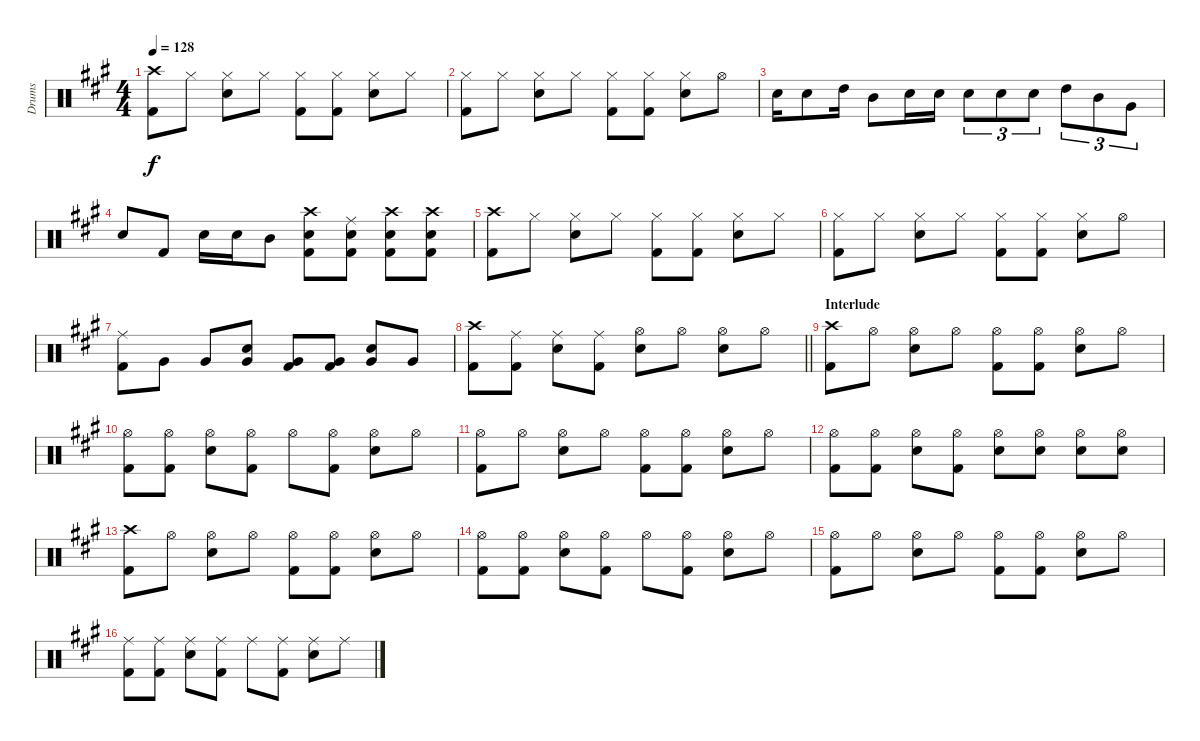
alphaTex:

\track ("Drums" "Drums") {instrument percussion}
\staff {score}
\articulation defaults
\ts (4 4)
\tempo 128
\clef neutral
\ks a
("Crash high (hit)" "Kick (hit) 2").8{dy f} "Hi-Hat (closed)".8 ("Hi-Hat (closed)" "Snare (hit) 2").8 "Hi-Hat (closed)".8 ("Hi-Hat (closed)" "Kick (hit) 2").8 ("Hi-Hat (closed)" "Kick (hit) 2").8 ("Hi-Hat (closed)" "Snare (hit) 2").8 "Hi-Hat (closed)".8 |
("Hi-Hat (closed)" "Kick (hit) 2").8 "Hi-Hat (closed)".8 ("Hi-Hat (closed)" "Snare (hit) 2").8 "Hi-Hat (closed)".8 ("Hi-Hat (closed)" "Kick (hit) 2").8 ("Hi-Hat (closed)" "Kick (hit) 2").8 ("Hi-Hat (closed)" "Snare (hit) 2").8 "Hi-Hat (open)".8 |
"Snare (hit) 2".16 "Snare (hit) 2".8 "High Tom (hit)".16 "Mid Tom (hit)".8 "Snare (hit) 2".16 "Snare (hit) 2".16 "Snare (hit) 2".8{tu (3 2)} "Snare (hit) 2".8{tu (3 2)} "Snare (hit) 2".8{tu (3 2)} "High Tom (hit)".8{tu (3 2)} "Mid Tom (hit)".8{tu (3 2)} "Very Low Tom (hit)".8{tu (3 2)} |
"Snare (hit) 2".8 "Kick (hit) 2".8 "Snare (hit) 2".16 "Snare (hit) 2".16 "Mid Tom (hit)".8 ("Crash high (hit)" "Snare (hit) 2" "Kick (hit) 2").8 ("Ride (middle)" "Snare (hit) 2" "Kick (hit) 2").8 ("Crash high (hit)" "Snare (hit) 2" "Kick (hit) 2").8 ("Crash high (hit)" "Snare (hit) 2" "Kick (hit) 2").8 |
("Crash high (hit)" "Kick (hit) 2").8 "Hi-Hat (closed)".8 ("Hi-Hat (closed)" "Snare (hit) 2").8 "Hi-Hat (closed)".8 ("Hi-Hat (closed)" "Kick (hit) 2").8 ("Hi-Hat (closed)" "Kick (hit) 2").8 ("Hi-Hat (closed)" "Snare (hit) 2").8 "Hi-Hat (closed)".8 |
("Hi-Hat (closed)" "Kick (hit) 2").8 "Hi-Hat (closed)".8 ("Hi-Hat (closed)" "Snare (hit) 2").8 "Hi-Hat (closed)".8 ("Hi-Hat (closed)" "Kick (hit) 2").8 ("Hi-Hat (closed)" "Kick (hit) 2").8 ("Hi-Hat (closed)" "Snare (hit) 2").8 "Hi-Hat (open)".8 |
("Ride (middle)" "Kick (hit) 2").8 "Very Low Tom (hit)".8 "Very Low Tom (hit)".8 ("Snare (hit) 2" "Very Low Tom (hit)").8 ("Very Low Tom (hit)" "Kick (hit) 2").8 ("Very Low Tom (hit)" "Kick (hit) 2").8 ("Snare (hit) 2" "Very Low Tom (hit)").8 "Very Low Tom (hit)".8 |
\barLineRight lightlight
("Crash high (hit)" "Kick (hit) 2").8 ("Ride (middle)" "Kick (hit) 2").8 ("Ride (middle)" "Snare (hit) 2").8 ("Ride (middle)" "Kick (hit) 2").8 ("Hi-Hat (open)" "Snare (hit) 2").8 "Hi-Hat (open)".8 ("Hi-Hat (open)" "Snare (hit) 2").8 "Hi-Hat (open)".8 |
\section ("" "Interlude")
("Crash high (hit)" "Kick (hit) 2").8 "Hi-Hat (open)".8 ("Hi-Hat (open)" "Snare (hit) 2").8 "Hi-Hat (open)".8 ("Hi-Hat (open)" "Kick (hit) 2").8 ("Hi-Hat (open)" "Kick (hit) 2").8 ("Hi-Hat (open)" "Snare (hit) 2").8 "Hi-Hat (open)".8 |
("Hi-Hat (open)" "Kick (hit) 2").8 ("Hi-Hat (open)" "Kick (hit) 2").8 ("Hi-Hat (open)" "Snare (hit) 2").8 ("Hi-Hat (open)" "Kick (hit) 2").8 "Hi-Hat (open)".8 ("Hi-Hat (open)" "Kick (hit) 2").8 ("Hi-Hat (open)" "Snare (hit) 2").8 "Hi-Hat (open)".8 |
("Hi-Hat (open)" "Kick (hit) 2").8 "Hi-Hat (open)".8 ("Hi-Hat (open)" "Snare (hit) 2").8 "Hi-Hat (open)".8 ("Hi-Hat (open)" "Kick (hit) 2").8 ("Hi-Hat (open)" "Kick (hit) 2").8 ("Hi-Hat (open)" "Snare (hit) 2").8 "Hi-Hat (open)".8 |
("Hi-Hat (open)" "Kick (hit) 2").8 ("Hi-Hat (open)" "Kick (hit) 2").8 ("Hi-Hat (open)" "Snare (hit) 2").8 ("Hi-Hat (open)" "Kick (hit) 2").8 ("Hi-Hat (open)" "Snare (hit) 2").8 ("Hi-Hat (open)" "Snare (hit) 2").8 ("Hi-Hat (open)" "Snare (hit) 2").8 ("Hi-Hat (open)" "Snare (hit) 2").8 |
("Crash high (hit)" "Kick (hit) 2").8 "Hi-Hat (open)".8 ("Hi-Hat (open)" "Snare (hit) 2").8 "Hi-Hat (open)".8 ("Hi-Hat (open)" "Kick (hit) 2").8 ("Hi-Hat (open)" "Kick (hit) 2").8 ("Hi-Hat (open)" "Snare (hit) 2").8 "Hi-Hat (open)".8 |
("Hi-Hat (open)" "Kick (hit) 2").8 ("Hi-Hat (open)" "Kick (hit) 2").8 ("Hi-Hat (open)" "Snare (hit) 2").8 ("Hi-Hat (open)" "Kick (hit) 2").8 "Hi-Hat (open)".8 ("Hi-Hat (open)" "Kick (hit) 2").8 ("Hi-Hat (open)" "Snare (hit) 2").8 "Hi-Hat (open)".8 |
("Hi-Hat (open)" "Kick (hit) 2").8 "Hi-Hat (open)".8 ("Hi-Hat (open)" "Snare (hit) 2").8 "Hi-Hat (open)".8 ("Hi-Hat (open)" "Kick (hit) 2").8 ("Hi-Hat (open)" "Kick (hit) 2").8 ("Hi-Hat (open)" "Snare (hit) 2").8 "Hi-Hat (open)".8 |
("Ride (middle)" "Kick (hit) 2").8 ("Ride (middle)" "Kick (hit) 2").8 ("Ride (middle)" "Snare (hit) 2").8 ("Ride (middle)" "Kick (hit) 2").8 "Ride (middle)".8 ("Ride (middle)" "Kick (hit) 2").8 ("Ride (middle)" "Snare (hit) 2").8 "Ride (middle)".8
